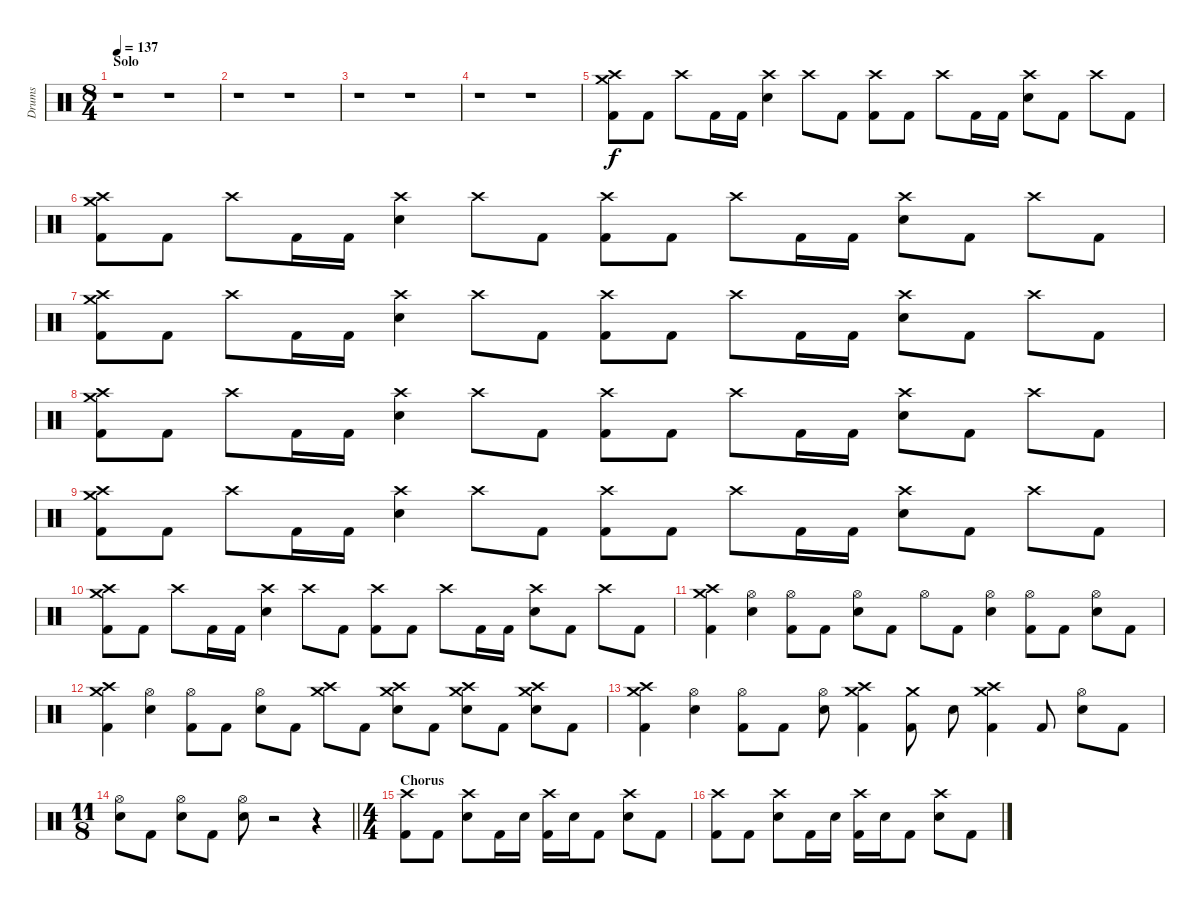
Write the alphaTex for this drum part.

\track ("Drums" "Drums") {instrument percussion}
\staff {score}
\articulation defaults
\ts (8 4)
\section ("" "Solo")
\tempo 137
\clef neutral
\ks c
r.1{dy f} r.1 |
r.1 r.1 |
r.1 r.1 |
r.1 r.1 |
("Crash medium (hit)" "Crash high (hit)" "Kick (hit) 2").8 "Kick (hit) 2".8 "Crash high (hit)".8 "Kick (hit) 2".16 "Kick (hit) 2".16 ("Crash high (hit)" "Electric Snare (hit)").4 "Crash high (hit)".8 "Kick (hit) 2".8 ("Crash high (hit)" "Kick (hit) 2").8 "Kick (hit) 2".8 "Crash high (hit)".8 "Kick (hit) 2".16 "Kick (hit) 2".16 ("Crash high (hit)" "Electric Snare (hit)").8 "Kick (hit) 2".8 "Crash high (hit)".8 "Kick (hit) 2".8 |
("Crash medium (hit)" "Crash high (hit)" "Kick (hit) 2").8 "Kick (hit) 2".8 "Crash high (hit)".8 "Kick (hit) 2".16 "Kick (hit) 2".16 ("Crash high (hit)" "Electric Snare (hit)").4 "Crash high (hit)".8 "Kick (hit) 2".8 ("Crash high (hit)" "Kick (hit) 2").8 "Kick (hit) 2".8 "Crash high (hit)".8 "Kick (hit) 2".16 "Kick (hit) 2".16 ("Crash high (hit)" "Electric Snare (hit)").8 "Kick (hit) 2".8 "Crash high (hit)".8 "Kick (hit) 2".8 |
("Crash medium (hit)" "Crash high (hit)" "Kick (hit) 2").8 "Kick (hit) 2".8 "Crash high (hit)".8 "Kick (hit) 2".16 "Kick (hit) 2".16 ("Crash high (hit)" "Electric Snare (hit)").4 "Crash high (hit)".8 "Kick (hit) 2".8 ("Crash high (hit)" "Kick (hit) 2").8 "Kick (hit) 2".8 "Crash high (hit)".8 "Kick (hit) 2".16 "Kick (hit) 2".16 ("Crash high (hit)" "Electric Snare (hit)").8 "Kick (hit) 2".8 "Crash high (hit)".8 "Kick (hit) 2".8 |
("Crash medium (hit)" "Crash high (hit)" "Kick (hit) 2").8 "Kick (hit) 2".8 "Crash high (hit)".8 "Kick (hit) 2".16 "Kick (hit) 2".16 ("Crash high (hit)" "Electric Snare (hit)").4 "Crash high (hit)".8 "Kick (hit) 2".8 ("Crash high (hit)" "Kick (hit) 2").8 "Kick (hit) 2".8 "Crash high (hit)".8 "Kick (hit) 2".16 "Kick (hit) 2".16 ("Crash high (hit)" "Electric Snare (hit)").8 "Kick (hit) 2".8 "Crash high (hit)".8 "Kick (hit) 2".8 |
("Crash medium (hit)" "Crash high (hit)" "Kick (hit) 2").8 "Kick (hit) 2".8 "Crash high (hit)".8 "Kick (hit) 2".16 "Kick (hit) 2".16 ("Crash high (hit)" "Electric Snare (hit)").4 "Crash high (hit)".8 "Kick (hit) 2".8 ("Crash high (hit)" "Kick (hit) 2").8 "Kick (hit) 2".8 "Crash high (hit)".8 "Kick (hit) 2".16 "Kick (hit) 2".16 ("Crash high (hit)" "Electric Snare (hit)").8 "Kick (hit) 2".8 "Crash high (hit)".8 "Kick (hit) 2".8 |
("Crash medium (hit)" "Crash high (hit)" "Kick (hit) 2").8 "Kick (hit) 2".8 "Crash high (hit)".8 "Kick (hit) 2".16 "Kick (hit) 2".16 ("Crash high (hit)" "Electric Snare (hit)").4 "Crash high (hit)".8 "Kick (hit) 2".8 ("Crash high (hit)" "Kick (hit) 2").8 "Kick (hit) 2".8 "Crash high (hit)".8 "Kick (hit) 2".16 "Kick (hit) 2".16 ("Crash high (hit)" "Electric Snare (hit)").8 "Kick (hit) 2".8 "Crash high (hit)".8 "Kick (hit) 2".8 |
("Crash medium (hit)" "Crash high (hit)" "Kick (hit) 2").4 ("Hi-Hat (open)" "Electric Snare (hit)").4 ("Hi-Hat (open)" "Kick (hit) 2").8 "Kick (hit) 2".8 ("Hi-Hat (open)" "Electric Snare (hit)").8 "Kick (hit) 2".8 "Hi-Hat (open)".8 "Kick (hit) 2".8 ("Hi-Hat (open)" "Electric Snare (hit)").4 ("Hi-Hat (open)" "Kick (hit) 2").8 "Kick (hit) 2".8 ("Hi-Hat (open)" "Electric Snare (hit)").8 "Kick (hit) 2".8 |
("Crash medium (hit)" "Crash high (hit)" "Kick (hit) 2").4 ("Hi-Hat (open)" "Electric Snare (hit)").4 ("Hi-Hat (open)" "Kick (hit) 2").8 "Kick (hit) 2".8 ("Hi-Hat (open)" "Electric Snare (hit)").8 "Kick (hit) 2".8 ("Crash medium (hit)" "Crash high (hit)").8 "Kick (hit) 2".8 ("Crash medium (hit)" "Crash high (hit)" "Electric Snare (hit)").8 "Kick (hit) 2".8 ("Crash medium (hit)" "Crash high (hit)" "Electric Snare (hit)").8 "Kick (hit) 2".8 ("Crash medium (hit)" "Crash high (hit)" "Electric Snare (hit)").8 "Kick (hit) 2".8 |
("Crash medium (hit)" "Crash high (hit)" "Kick (hit) 2").4 ("Hi-Hat (open)" "Electric Snare (hit)").4 ("Hi-Hat (open)" "Kick (hit) 2").8 "Kick (hit) 2".8 ("Hi-Hat (open)" "Electric Snare (hit)").8 ("Crash medium (hit)" "Crash high (hit)" "Kick (hit) 2").4 ("Crash medium (hit)" "Kick (hit) 2").8 "Electric Snare (hit)".8 ("Crash medium (hit)" "Crash high (hit)" "Kick (hit) 2").4 "Kick (hit) 2".8 ("Hi-Hat (open)" "Electric Snare (hit)").8 "Kick (hit) 2".8 |
\ts (11 8)
\barLineRight lightlight
("Hi-Hat (open)" "Electric Snare (hit)").8 "Kick (hit) 2".8 ("Hi-Hat (open)" "Electric Snare (hit)").8 "Kick (hit) 2".8 ("Hi-Hat (open)" "Electric Snare (hit)").8 r.2 r.4 |
\ts (4 4)
\section ("" "Chorus")
("Crash high (hit)" "Kick (hit) 2").8 "Kick (hit) 2".8 ("Crash high (hit)" "Electric Snare (hit)").8 "Kick (hit) 2".16 "Electric Snare (hit)".16 ("Crash high (hit)" "Kick (hit) 2").16 "Electric Snare (hit)".16 "Kick (hit) 2".8 ("Crash high (hit)" "Electric Snare (hit)").8 "Kick (hit) 2".8 |
("Crash high (hit)" "Kick (hit) 2").8 "Kick (hit) 2".8 ("Crash high (hit)" "Electric Snare (hit)").8 "Kick (hit) 2".16 "Electric Snare (hit)".16 ("Crash high (hit)" "Kick (hit) 2").16 "Electric Snare (hit)".16 "Kick (hit) 2".8 ("Crash high (hit)" "Electric Snare (hit)").8 "Kick (hit) 2".8
